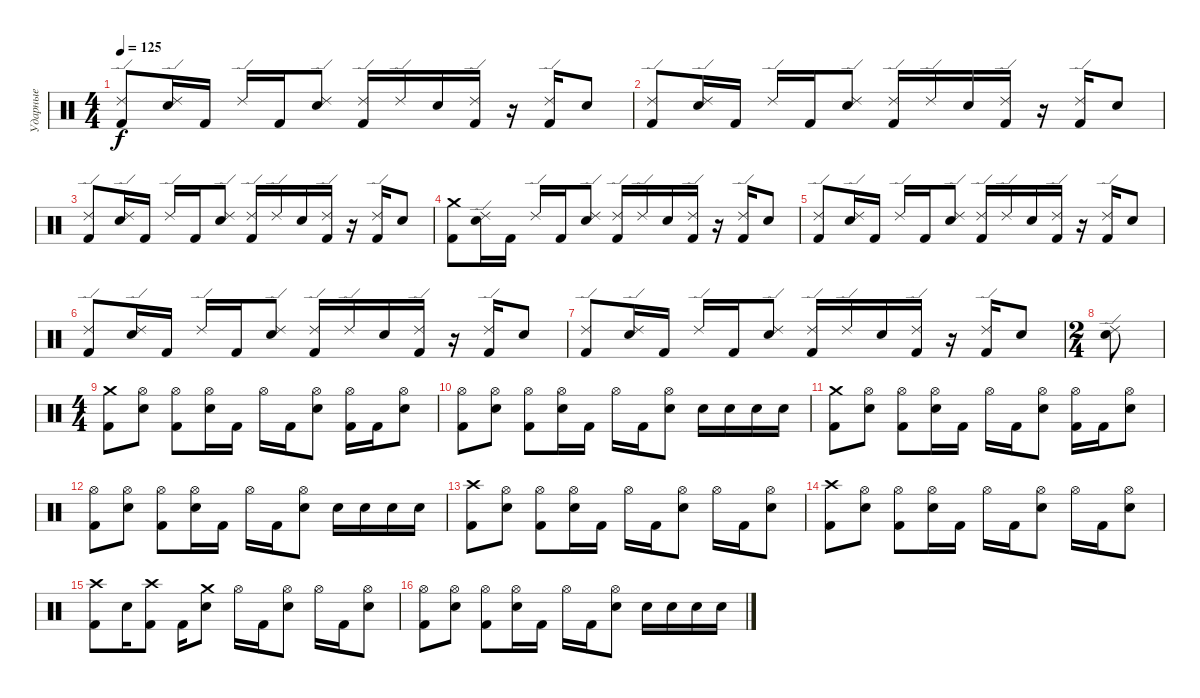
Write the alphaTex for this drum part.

\track ("Ударные" "Ударные") {instrument percussion}
\staff {score}
\articulation defaults
\ts (4 4)
\tempo 125
\clef neutral
\ks c
("Ride (edge) 2" "Kick (hit) 2").8{dy f} ("Ride (edge) 2" "Snare (hit) 2").16 "Kick (hit) 2".16 "Ride (edge) 2".16 "Kick (hit) 2".16 ("Ride (edge) 2" "Snare (hit) 2").8 ("Ride (edge) 2" "Kick (hit) 2").16 "Ride (edge) 2".16 "Snare (hit) 2".16 ("Ride (edge) 2" "Kick (hit) 2").16 r.16 ("Ride (edge) 2" "Kick (hit) 2").16 "Snare (hit) 2".8 |
("Ride (edge) 2" "Kick (hit) 2").8 ("Ride (edge) 2" "Snare (hit) 2").16 "Kick (hit) 2".16 "Ride (edge) 2".16 "Kick (hit) 2".16 ("Ride (edge) 2" "Snare (hit) 2").8 ("Ride (edge) 2" "Kick (hit) 2").16 "Ride (edge) 2".16 "Snare (hit) 2".16 ("Ride (edge) 2" "Kick (hit) 2").16 r.16 ("Ride (edge) 2" "Kick (hit) 2").16 "Snare (hit) 2".8 |
("Ride (edge) 2" "Kick (hit) 2").8 ("Ride (edge) 2" "Snare (hit) 2").16 "Kick (hit) 2".16 "Ride (edge) 2".16 "Kick (hit) 2".16 ("Ride (edge) 2" "Snare (hit) 2").8 ("Ride (edge) 2" "Kick (hit) 2").16 "Ride (edge) 2".16 "Snare (hit) 2".16 ("Ride (edge) 2" "Kick (hit) 2").16 r.16 ("Ride (edge) 2" "Kick (hit) 2").16 "Snare (hit) 2".8 |
("Crash medium (hit)" "Kick (hit) 2").8 ("Ride (edge) 2" "Snare (hit) 2").16 "Kick (hit) 2".16 "Ride (edge) 2".16 "Kick (hit) 2".16 ("Ride (edge) 2" "Snare (hit) 2").8 ("Ride (edge) 2" "Kick (hit) 2").16 "Ride (edge) 2".16 "Snare (hit) 2".16 ("Ride (edge) 2" "Kick (hit) 2").16 r.16 ("Ride (edge) 2" "Kick (hit) 2").16 "Snare (hit) 2".8 |
("Ride (edge) 2" "Kick (hit) 2").8 ("Ride (edge) 2" "Snare (hit) 2").16 "Kick (hit) 2".16 "Ride (edge) 2".16 "Kick (hit) 2".16 ("Ride (edge) 2" "Snare (hit) 2").8 ("Ride (edge) 2" "Kick (hit) 2").16 "Ride (edge) 2".16 "Snare (hit) 2".16 ("Ride (edge) 2" "Kick (hit) 2").16 r.16 ("Ride (edge) 2" "Kick (hit) 2").16 "Snare (hit) 2".8 |
("Ride (edge) 2" "Kick (hit) 2").8 ("Ride (edge) 2" "Snare (hit) 2").16 "Kick (hit) 2".16 "Ride (edge) 2".16 "Kick (hit) 2".16 ("Ride (edge) 2" "Snare (hit) 2").8 ("Ride (edge) 2" "Kick (hit) 2").16 "Ride (edge) 2".16 "Snare (hit) 2".16 ("Ride (edge) 2" "Kick (hit) 2").16 r.16 ("Ride (edge) 2" "Kick (hit) 2").16 "Snare (hit) 2".8 |
("Ride (edge) 2" "Kick (hit) 2").8 ("Ride (edge) 2" "Snare (hit) 2").16 "Kick (hit) 2".16 "Ride (edge) 2".16 "Kick (hit) 2".16 ("Ride (edge) 2" "Snare (hit) 2").8 ("Ride (edge) 2" "Kick (hit) 2").16 "Ride (edge) 2".16 "Snare (hit) 2".16 ("Ride (edge) 2" "Kick (hit) 2").16 r.16 ("Ride (edge) 2" "Kick (hit) 2").16 "Snare (hit) 2".8 |
\ts (2 4)
("Ride (edge) 2" "Snare (hit) 2").8 |
\ts (4 4)
("Crash medium (hit)" "Kick (hit) 2").8 ("Hi-Hat (open)" "Snare (hit) 2").8 ("Hi-Hat (open)" "Kick (hit) 2").8 ("Hi-Hat (open)" "Snare (hit) 2").16 "Kick (hit) 2".16 "Hi-Hat (open)".16 "Kick (hit) 2".16 ("Hi-Hat (open)" "Snare (hit) 2").8 ("Hi-Hat (open)" "Kick (hit) 2").16 "Kick (hit) 2".16 ("Hi-Hat (open)" "Snare (hit) 2").8 |
("Hi-Hat (open)" "Kick (hit) 2").8 ("Hi-Hat (open)" "Snare (hit) 2").8 ("Hi-Hat (open)" "Kick (hit) 2").8 ("Hi-Hat (open)" "Snare (hit) 2").16 "Kick (hit) 2".16 "Hi-Hat (open)".16 "Kick (hit) 2".16 ("Hi-Hat (open)" "Snare (hit) 2").8 "Snare (hit) 2".16 "Snare (hit) 2".16 "Snare (hit) 2".16 "Snare (hit) 2".16 |
("Crash medium (hit)" "Kick (hit) 2").8 ("Hi-Hat (open)" "Snare (hit) 2").8 ("Hi-Hat (open)" "Kick (hit) 2").8 ("Hi-Hat (open)" "Snare (hit) 2").16 "Kick (hit) 2".16 "Hi-Hat (open)".16 "Kick (hit) 2".16 ("Hi-Hat (open)" "Snare (hit) 2").8 ("Hi-Hat (open)" "Kick (hit) 2").16 "Kick (hit) 2".16 ("Hi-Hat (open)" "Snare (hit) 2").8 |
("Hi-Hat (open)" "Kick (hit) 2").8 ("Hi-Hat (open)" "Snare (hit) 2").8 ("Hi-Hat (open)" "Kick (hit) 2").8 ("Hi-Hat (open)" "Snare (hit) 2").16 "Kick (hit) 2".16 "Hi-Hat (open)".16 "Kick (hit) 2".16 ("Hi-Hat (open)" "Snare (hit) 2").8 "Snare (hit) 2".16 "Snare (hit) 2".16 "Snare (hit) 2".16 "Snare (hit) 2".16 |
("Crash high (hit)" "Kick (hit) 2").8 ("Hi-Hat (open)" "Snare (hit) 2").8 ("Hi-Hat (open)" "Kick (hit) 2").8 ("Hi-Hat (open)" "Snare (hit) 2").16 "Kick (hit) 2".16 "Hi-Hat (open)".16 "Kick (hit) 2".16 ("Hi-Hat (open)" "Snare (hit) 2").8 "Hi-Hat (open)".16 "Kick (hit) 2".16 ("Hi-Hat (open)" "Snare (hit) 2").8 |
("Crash high (hit)" "Kick (hit) 2").8 ("Hi-Hat (open)" "Snare (hit) 2").8 ("Hi-Hat (open)" "Kick (hit) 2").8 ("Hi-Hat (open)" "Snare (hit) 2").16 "Kick (hit) 2".16 "Hi-Hat (open)".16 "Kick (hit) 2".16 ("Hi-Hat (open)" "Snare (hit) 2").8 "Hi-Hat (open)".16 "Kick (hit) 2".16 ("Hi-Hat (open)" "Snare (hit) 2").8 |
("Crash high (hit)" "Kick (hit) 2").8 "Snare (hit) 2".16 ("Crash high (hit)" "Kick (hit) 2").8 "Kick (hit) 2".16 ("Crash medium (hit)" "Snare (hit) 2").8 "Hi-Hat (open)".16 "Kick (hit) 2".16 ("Hi-Hat (open)" "Snare (hit) 2").8 "Hi-Hat (open)".16 "Kick (hit) 2".16 ("Hi-Hat (open)" "Snare (hit) 2").8 |
("Hi-Hat (open)" "Kick (hit) 2").8 ("Hi-Hat (open)" "Snare (hit) 2").8 ("Hi-Hat (open)" "Kick (hit) 2").8 ("Hi-Hat (open)" "Snare (hit) 2").16 "Kick (hit) 2".16 "Hi-Hat (open)".16 "Kick (hit) 2".16 ("Hi-Hat (open)" "Snare (hit) 2").8 "Snare (hit) 2".16 "Snare (hit) 2".16 "Snare (hit) 2".16 "Snare (hit) 2".16
